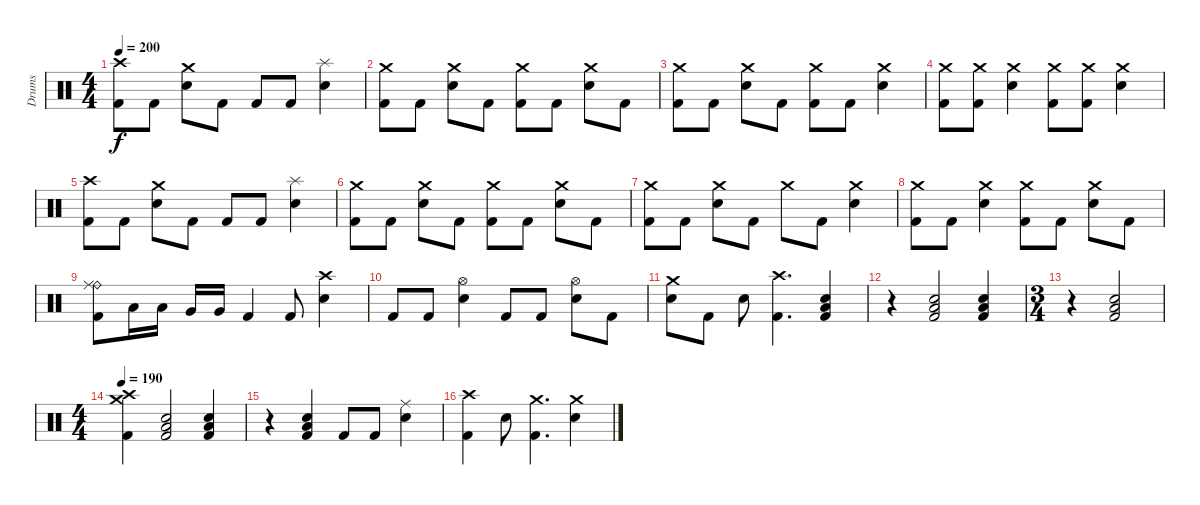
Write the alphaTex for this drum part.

\track ("Drums" "Drums") {instrument percussion}
\staff {score}
\articulation defaults
\ts (4 4)
\tempo 200
\clef neutral
\ks c
("Crash high (hit)" "Kick (hit) 2").8{dy f} "Kick (hit) 2".8 ("Crash medium (hit)" "Electric Snare (hit)").8 "Kick (hit) 2".8 "Kick (hit) 2".8 "Kick (hit) 2".8 ("Splash (hit)" "Electric Snare (hit)").4 |
("Crash medium (hit)" "Kick (hit) 2").8 "Kick (hit) 2".8 ("Crash medium (hit)" "Electric Snare (hit)").8 "Kick (hit) 2".8 ("Crash medium (hit)" "Kick (hit) 2").8 "Kick (hit) 2".8 ("Crash medium (hit)" "Electric Snare (hit)").8 "Kick (hit) 2".8 |
("Crash medium (hit)" "Kick (hit) 2").8 "Kick (hit) 2".8 ("Crash medium (hit)" "Electric Snare (hit)").8 "Kick (hit) 2".8 ("Crash medium (hit)" "Kick (hit) 2").8 "Kick (hit) 2".8 ("Crash medium (hit)" "Electric Snare (hit)").4 |
("Crash medium (hit)" "Kick (hit) 2").8 ("Crash medium (hit)" "Kick (hit) 2").8 ("Crash medium (hit)" "Electric Snare (hit)").4 ("Crash medium (hit)" "Kick (hit) 2").8 ("Crash medium (hit)" "Kick (hit) 2").8 ("Crash medium (hit)" "Electric Snare (hit)").4 |
("Crash high (hit)" "Kick (hit) 2").8 "Kick (hit) 2".8 ("Crash medium (hit)" "Electric Snare (hit)").8 "Kick (hit) 2".8 "Kick (hit) 2".8 "Kick (hit) 2".8 ("Splash (hit)" "Electric Snare (hit)").4 |
("Crash medium (hit)" "Kick (hit) 2").8 "Kick (hit) 2".8 ("Crash medium (hit)" "Electric Snare (hit)").8 "Kick (hit) 2".8 ("Crash medium (hit)" "Kick (hit) 2").8 "Kick (hit) 2".8 ("Crash medium (hit)" "Electric Snare (hit)").8 "Kick (hit) 2".8 |
("Crash medium (hit)" "Kick (hit) 2").8 "Kick (hit) 2".8 ("Crash medium (hit)" "Electric Snare (hit)").8 "Kick (hit) 2".8 "Crash medium (hit)".8 "Kick (hit) 2".8 ("Crash medium (hit)" "Electric Snare (hit)").4 |
("Crash medium (hit)" "Kick (hit) 2").8 "Kick (hit) 2".8 ("Crash medium (hit)" "Electric Snare (hit)").4 ("Crash medium (hit)" "Kick (hit) 2").8 "Kick (hit) 2".8 ("Crash medium (hit)" "Electric Snare (hit)").8 "Kick (hit) 2".8 |
("Ride (bell)" "Ride (middle)" "Kick (hit) 2").8 "Low Tom (hit)".16 "Low Tom (hit)".16 "Very Low Tom (hit)".16 "Very Low Tom (hit)".16 "Kick (hit) 2".4 "Kick (hit) 2".8 ("Crash high (hit)" "Electric Snare (hit)").4 |
"Kick (hit) 2".8 "Kick (hit) 2".8 ("Hi-Hat (open)" "Electric Snare (hit)").4 "Kick (hit) 2".8 "Kick (hit) 2".8 ("Hi-Hat (open)" "Electric Snare (hit)").8 "Kick (hit) 2".8 |
("Crash medium (hit)" "Electric Snare (hit)").8 "Kick (hit) 2".8 "Electric Snare (hit)".8 ("Crash high (hit)" "Kick (hit) 2").4{d} ("Low Floor Tom (hit)" "Electric Snare (hit)" "Kick (hit) 2").4 |
r.4 ("Low Floor Tom (hit)" "Electric Snare (hit)" "Kick (hit) 2").2 ("Low Floor Tom (hit)" "Electric Snare (hit)" "Kick (hit) 2").4 |
\ts (3 4)
r.4 ("Low Floor Tom (hit)" "Electric Snare (hit)" "Kick (hit) 2").2 |
\ts (4 4)
\tempo 190
("Crash medium (hit)" "Crash high (hit)" "Kick (hit) 2").4 ("Low Floor Tom (hit)" "Electric Snare (hit)" "Kick (hit) 2").2 ("Low Floor Tom (hit)" "Electric Snare (hit)" "Kick (hit) 2").4 |
r.4 ("Low Floor Tom (hit)" "Electric Snare (hit)" "Kick (hit) 2").4 "Kick (hit) 2".8 "Kick (hit) 2".8 ("Ride (middle)" "Electric Snare (hit)").4 |
("Crash high (hit)" "Kick (hit) 2").4 "Electric Snare (hit)".8 ("Crash medium (hit)" "Kick (hit) 2").4{d} ("Crash medium (hit)" "Electric Snare (hit)").4
